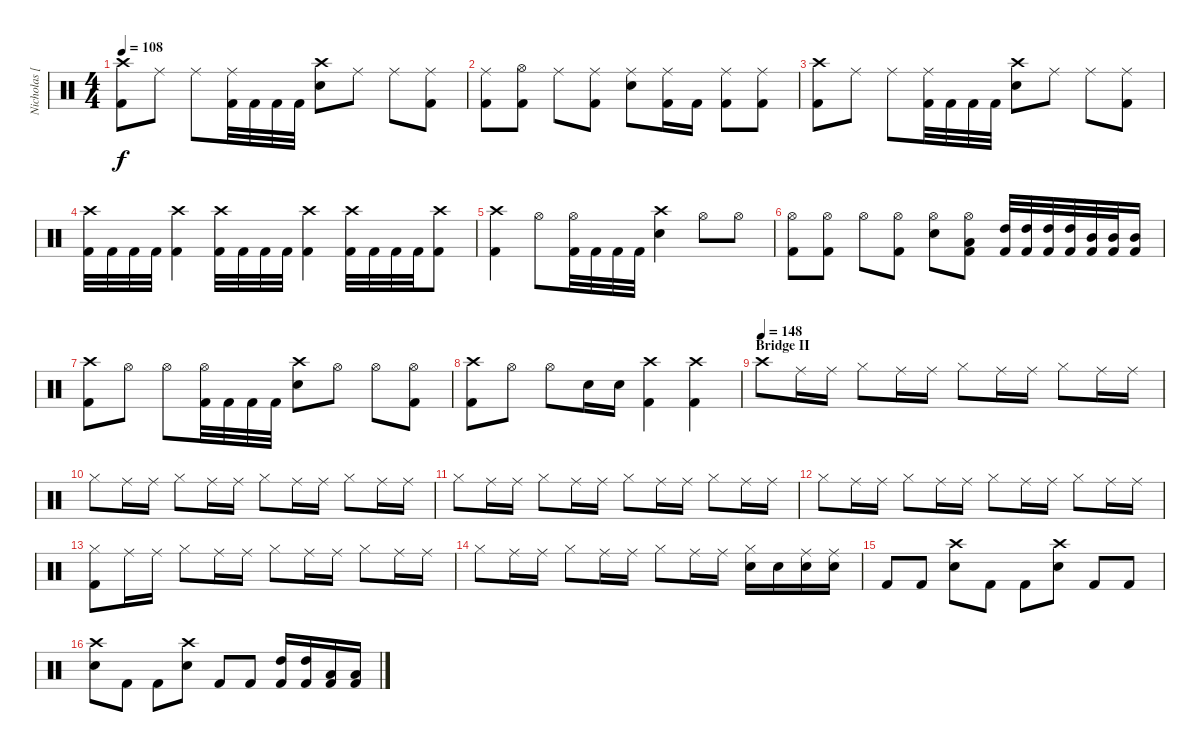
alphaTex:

\track ("Nicholas [Percussion]" "Nicholas [") {instrument percussion}
\staff {score}
\articulation defaults
\ts (4 4)
\tempo 108
\clef neutral
\ks c
("Kick (hit) 2" "Crash high (hit)").8{dy f} "Ride (middle)".8 "Ride (middle)".8 ("Kick (hit) 2" "Ride (middle)").32 "Kick (hit) 2".32 "Kick (hit) 2".32 "Kick (hit) 2".32 ("Snare (hit) 2" "Crash high (hit)").8 "Ride (middle)".8 "Ride (middle)".8 ("Kick (hit) 2" "Ride (middle)").8 |
("Kick (hit) 2" "Ride (middle)").8 ("Kick (hit) 2" "Hi-Hat (open)").8 "Ride (middle)".8 ("Kick (hit) 2" "Ride (middle)").8 ("Snare (hit) 2" "Ride (middle)").8 ("Kick (hit) 2" "Ride (middle)").16 "Kick (hit) 2".16 ("Kick (hit) 2" "Ride (middle)").8 ("Kick (hit) 2" "Ride (middle)").8 |
("Kick (hit) 2" "Crash high (hit)").8 "Ride (middle)".8 "Ride (middle)".8 ("Kick (hit) 2" "Ride (middle)").32 "Kick (hit) 2".32 "Kick (hit) 2".32 "Kick (hit) 2".32 ("Snare (hit) 2" "Crash high (hit)").8 "Ride (middle)".8 "Ride (middle)".8 ("Kick (hit) 2" "Ride (middle)").8 |
("Kick (hit) 2" "Crash high (hit)").32 "Kick (hit) 2".32 "Kick (hit) 2".32 "Kick (hit) 2".32 ("Kick (hit) 2" "Crash high (hit)").4 ("Kick (hit) 2" "Crash high (hit)").32 "Kick (hit) 2".32 "Kick (hit) 2".32 "Kick (hit) 2".32 ("Kick (hit) 2" "Crash high (hit)").4 ("Kick (hit) 2" "Crash high (hit)").32 "Kick (hit) 2".32 "Kick (hit) 2".32 "Kick (hit) 2".32 ("Kick (hit) 2" "Crash high (hit)").8 |
("Kick (hit) 2" "Crash high (hit)").4 "Hi-Hat (open)".8 ("Kick (hit) 2" "Hi-Hat (open)").32 "Kick (hit) 2".32 "Kick (hit) 2".32 "Kick (hit) 2".32 ("Snare (hit) 2" "Crash high (hit)").4 "Hi-Hat (open)".8 "Hi-Hat (open)".8 |
("Kick (hit) 2" "Hi-Hat (open)").8 ("Kick (hit) 2" "Hi-Hat (open)").8 "Hi-Hat (open)".8 ("Kick (hit) 2" "Hi-Hat (open)").8 ("Snare (hit) 2" "Hi-Hat (open)").8 ("Kick (hit) 2" "Low Tom (hit)" "Hi-Hat (open)").8 ("Kick (hit) 2" "High Tom (hit)").32 ("Kick (hit) 2" "High Tom (hit)").32 ("Kick (hit) 2" "High Tom (hit)").32 ("Kick (hit) 2" "High Tom (hit)").32 ("Kick (hit) 2" "Mid Tom (hit)").32 ("Kick (hit) 2" "Mid Tom (hit)").32 ("Kick (hit) 2" "Mid Tom (hit)").16 |
("Kick (hit) 2" "Crash high (hit)").8 "Hi-Hat (open)".8 "Hi-Hat (open)".8 ("Kick (hit) 2" "Hi-Hat (open)").32 "Kick (hit) 2".32 "Kick (hit) 2".32 "Kick (hit) 2".32 ("Snare (hit) 2" "Crash high (hit)").8 "Hi-Hat (open)".8 "Hi-Hat (open)".8 ("Kick (hit) 2" "Hi-Hat (open)").8 |
("Kick (hit) 2" "Crash high (hit)").8 "Hi-Hat (open)".8 "Hi-Hat (open)".8 "Snare (hit) 2".16 "Snare (hit) 2".16 ("Kick (hit) 2" "Crash high (hit)").4 ("Kick (hit) 2" "Crash high (hit)").4 |
\section ("" "Bridge II")
\tempo (148)
"Crash high (hit)".8 "Ride (middle)".16 "Ride (middle)".16 "Hi-Hat (closed)".8 "Ride (middle)".16 "Ride (middle)".16 "Hi-Hat (closed)".8 "Ride (middle)".16 "Ride (middle)".16 "Hi-Hat (closed)".8 "Ride (middle)".16 "Ride (middle)".16 |
"Hi-Hat (closed)".8 "Ride (middle)".16 "Ride (middle)".16 "Hi-Hat (closed)".8 "Ride (middle)".16 "Ride (middle)".16 "Hi-Hat (closed)".8 "Ride (middle)".16 "Ride (middle)".16 "Hi-Hat (closed)".8 "Ride (middle)".16 "Ride (middle)".16 |
"Hi-Hat (closed)".8 "Ride (middle)".16 "Ride (middle)".16 "Hi-Hat (closed)".8 "Ride (middle)".16 "Ride (middle)".16 "Hi-Hat (closed)".8 "Ride (middle)".16 "Ride (middle)".16 "Hi-Hat (closed)".8 "Ride (middle)".16 "Ride (middle)".16 |
"Hi-Hat (closed)".8 "Ride (middle)".16 "Ride (middle)".16 "Hi-Hat (closed)".8 "Ride (middle)".16 "Ride (middle)".16 "Hi-Hat (closed)".8 "Ride (middle)".16 "Ride (middle)".16 "Hi-Hat (closed)".8 "Ride (middle)".16 "Ride (middle)".16 |
("Kick (hit) 2" "Hi-Hat (closed)").8 "Ride (middle)".16 "Ride (middle)".16 "Hi-Hat (closed)".8 "Ride (middle)".16 "Ride (middle)".16 "Hi-Hat (closed)".8 "Ride (middle)".16 "Ride (middle)".16 "Hi-Hat (closed)".8 "Ride (middle)".16 "Ride (middle)".16 |
"Hi-Hat (closed)".8 "Ride (middle)".16 "Ride (middle)".16 "Hi-Hat (closed)".8 "Ride (middle)".16 "Ride (middle)".16 "Hi-Hat (closed)".8 "Ride (middle)".16 "Ride (middle)".16 ("Snare (hit) 2" "Hi-Hat (closed)").16 "Snare (hit) 2".16 ("Snare (hit) 2" "Ride (middle)").16 ("Snare (hit) 2" "Ride (middle)").16 |
"Kick (hit) 2".8 "Kick (hit) 2".8 ("Snare (hit) 2" "Crash high (hit)").8 "Kick (hit) 2".8 "Kick (hit) 2".8 ("Snare (hit) 2" "Crash high (hit)").8 "Kick (hit) 2".8 "Kick (hit) 2".8 |
("Snare (hit) 2" "Crash high (hit)").8 "Kick (hit) 2".8 "Kick (hit) 2".8 ("Snare (hit) 2" "Crash high (hit)").8 "Kick (hit) 2".8 "Kick (hit) 2".8 ("Kick (hit) 2" "High Tom (hit)").16 ("Kick (hit) 2" "High Tom (hit)").16 ("Kick (hit) 2" "Low Tom (hit)").16 ("Kick (hit) 2" "Low Tom (hit)").16
